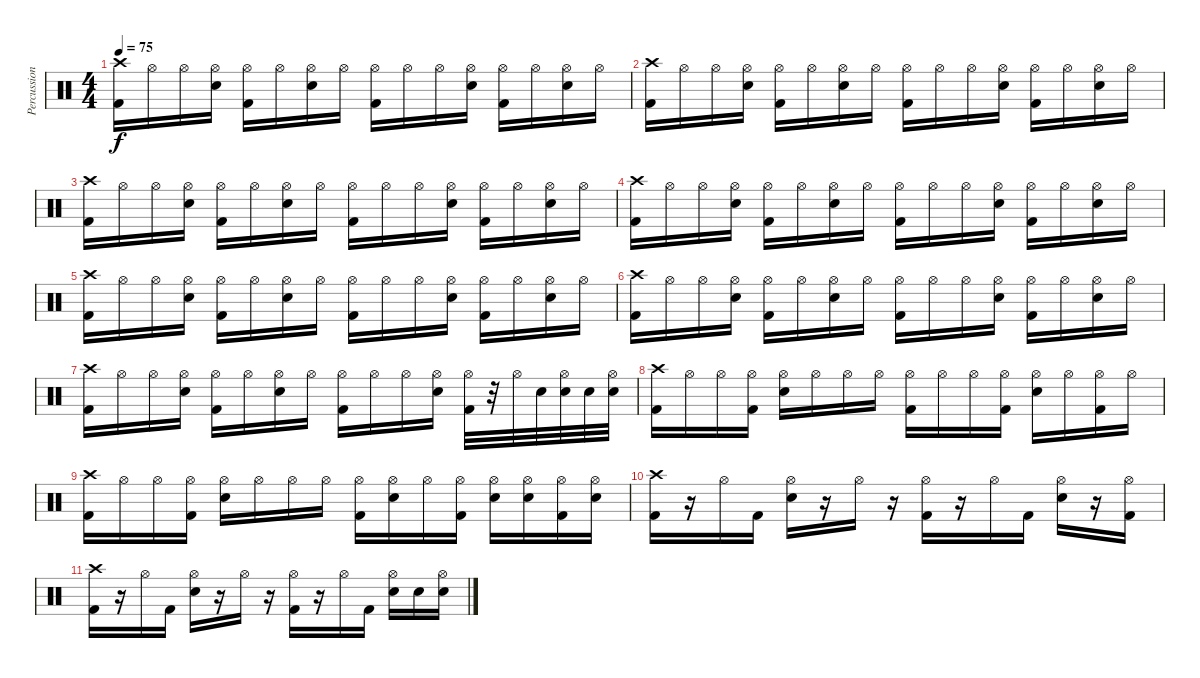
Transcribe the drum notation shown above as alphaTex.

\track ("Percussion" "Percussion") {instrument percussion}
\staff {score}
\articulation defaults
\ts (4 4)
\tempo 75
\clef neutral
\ks c
("Crash high (hit)" "Kick (hit) 2").16{dy f} "Hi-Hat (open)".16 "Hi-Hat (open)".16 ("Hi-Hat (open)" "Snare (hit) 2").16 ("Hi-Hat (open)" "Kick (hit) 2").16 "Hi-Hat (open)".16 ("Hi-Hat (open)" "Snare (hit) 2").16 "Hi-Hat (open)".16 ("Hi-Hat (open)" "Kick (hit) 2").16 "Hi-Hat (open)".16 "Hi-Hat (open)".16 ("Hi-Hat (open)" "Snare (hit) 2").16 ("Hi-Hat (open)" "Kick (hit) 2").16 "Hi-Hat (open)".16 ("Hi-Hat (open)" "Snare (hit) 2").16 "Hi-Hat (open)".16 |
("Crash high (hit)" "Kick (hit) 2").16 "Hi-Hat (open)".16 "Hi-Hat (open)".16 ("Hi-Hat (open)" "Snare (hit) 2").16 ("Hi-Hat (open)" "Kick (hit) 2").16 "Hi-Hat (open)".16 ("Hi-Hat (open)" "Snare (hit) 2").16 "Hi-Hat (open)".16 ("Hi-Hat (open)" "Kick (hit) 2").16 "Hi-Hat (open)".16 "Hi-Hat (open)".16 ("Hi-Hat (open)" "Snare (hit) 2").16 ("Hi-Hat (open)" "Kick (hit) 2").16 "Hi-Hat (open)".16 ("Hi-Hat (open)" "Snare (hit) 2").16 "Hi-Hat (open)".16 |
("Crash high (hit)" "Kick (hit) 2").16 "Hi-Hat (open)".16 "Hi-Hat (open)".16 ("Hi-Hat (open)" "Snare (hit) 2").16 ("Hi-Hat (open)" "Kick (hit) 2").16 "Hi-Hat (open)".16 ("Hi-Hat (open)" "Snare (hit) 2").16 "Hi-Hat (open)".16 ("Hi-Hat (open)" "Kick (hit) 2").16 "Hi-Hat (open)".16 "Hi-Hat (open)".16 ("Hi-Hat (open)" "Snare (hit) 2").16 ("Hi-Hat (open)" "Kick (hit) 2").16 "Hi-Hat (open)".16 ("Hi-Hat (open)" "Snare (hit) 2").16 "Hi-Hat (open)".16 |
("Crash high (hit)" "Kick (hit) 2").16 "Hi-Hat (open)".16 "Hi-Hat (open)".16 ("Hi-Hat (open)" "Snare (hit) 2").16 ("Hi-Hat (open)" "Kick (hit) 2").16 "Hi-Hat (open)".16 ("Hi-Hat (open)" "Snare (hit) 2").16 "Hi-Hat (open)".16 ("Hi-Hat (open)" "Kick (hit) 2").16 "Hi-Hat (open)".16 "Hi-Hat (open)".16 ("Hi-Hat (open)" "Snare (hit) 2").16 ("Hi-Hat (open)" "Kick (hit) 2").16 "Hi-Hat (open)".16 ("Hi-Hat (open)" "Snare (hit) 2").16 "Hi-Hat (open)".16 |
("Crash high (hit)" "Kick (hit) 2").16 "Hi-Hat (open)".16 "Hi-Hat (open)".16 ("Hi-Hat (open)" "Snare (hit) 2").16 ("Hi-Hat (open)" "Kick (hit) 2").16 "Hi-Hat (open)".16 ("Hi-Hat (open)" "Snare (hit) 2").16 "Hi-Hat (open)".16 ("Hi-Hat (open)" "Kick (hit) 2").16 "Hi-Hat (open)".16 "Hi-Hat (open)".16 ("Hi-Hat (open)" "Snare (hit) 2").16 ("Hi-Hat (open)" "Kick (hit) 2").16 "Hi-Hat (open)".16 ("Hi-Hat (open)" "Snare (hit) 2").16 "Hi-Hat (open)".16 |
("Crash high (hit)" "Kick (hit) 2").16 "Hi-Hat (open)".16 "Hi-Hat (open)".16 ("Hi-Hat (open)" "Snare (hit) 2").16 ("Hi-Hat (open)" "Kick (hit) 2").16 "Hi-Hat (open)".16 ("Hi-Hat (open)" "Snare (hit) 2").16 "Hi-Hat (open)".16 ("Hi-Hat (open)" "Kick (hit) 2").16 "Hi-Hat (open)".16 "Hi-Hat (open)".16 ("Hi-Hat (open)" "Snare (hit) 2").16 ("Hi-Hat (open)" "Kick (hit) 2").16 "Hi-Hat (open)".16 ("Hi-Hat (open)" "Snare (hit) 2").16 "Hi-Hat (open)".16 |
("Crash high (hit)" "Kick (hit) 2").16 "Hi-Hat (open)".16 "Hi-Hat (open)".16 ("Hi-Hat (open)" "Snare (hit) 2").16 ("Hi-Hat (open)" "Kick (hit) 2").16 "Hi-Hat (open)".16 ("Hi-Hat (open)" "Snare (hit) 2").16 "Hi-Hat (open)".16 ("Hi-Hat (open)" "Kick (hit) 2").16 "Hi-Hat (open)".16 "Hi-Hat (open)".16 ("Hi-Hat (open)" "Snare (hit) 2").16 ("Hi-Hat (open)" "Kick (hit) 2").32 r.32 "Hi-Hat (open)".32 "Snare (hit) 2".32 ("Hi-Hat (open)" "Snare (hit) 2").32 "Snare (hit) 2".32 ("Hi-Hat (open)" "Snare (hit) 2").32 |
("Crash high (hit)" "Kick (hit) 2").16 "Hi-Hat (open)".16 "Hi-Hat (open)".16 ("Hi-Hat (open)" "Kick (hit) 2").16 ("Hi-Hat (open)" "Snare (hit) 2").16 "Hi-Hat (open)".16 "Hi-Hat (open)".16 "Hi-Hat (open)".16 ("Hi-Hat (open)" "Kick (hit) 2").16 "Hi-Hat (open)".16 "Hi-Hat (open)".16 ("Hi-Hat (open)" "Kick (hit) 2").16 ("Hi-Hat (open)" "Snare (hit) 2").16 "Hi-Hat (open)".16 ("Hi-Hat (open)" "Kick (hit) 2").16 "Hi-Hat (open)".16 |
("Crash high (hit)" "Kick (hit) 2").16 "Hi-Hat (open)".16 "Hi-Hat (open)".16 ("Hi-Hat (open)" "Kick (hit) 2").16 ("Hi-Hat (open)" "Snare (hit) 2").16 "Hi-Hat (open)".16 "Hi-Hat (open)".16 "Hi-Hat (open)".16 ("Hi-Hat (open)" "Kick (hit) 2").16 ("Hi-Hat (open)" "Snare (hit) 2").16 "Hi-Hat (open)".16 ("Hi-Hat (open)" "Kick (hit) 2").16 ("Hi-Hat (open)" "Snare (hit) 2").16 ("Hi-Hat (open)" "Snare (hit) 2").16 ("Hi-Hat (open)" "Kick (hit) 2").16 ("Hi-Hat (open)" "Snare (hit) 2").16 |
("Crash high (hit)" "Kick (hit) 2").16 r.16 "Hi-Hat (open)".16 "Kick (hit) 2".16 ("Hi-Hat (open)" "Snare (hit) 2").16 r.16 "Hi-Hat (open)".16 r.16 ("Hi-Hat (open)" "Kick (hit) 2").16 r.16 "Hi-Hat (open)".16 "Kick (hit) 2".16 ("Hi-Hat (open)" "Snare (hit) 2").16 r.16 ("Hi-Hat (open)" "Kick (hit) 2").16 |
("Crash high (hit)" "Kick (hit) 2").16 r.16 "Hi-Hat (open)".16 "Kick (hit) 2".16 ("Hi-Hat (open)" "Snare (hit) 2").16 r.16 "Hi-Hat (open)".16 r.16 ("Hi-Hat (open)" "Kick (hit) 2").16 r.16 "Hi-Hat (open)".16 "Kick (hit) 2".16 ("Hi-Hat (open)" "Snare (hit) 2").16 "Snare (hit) 2".16 ("Hi-Hat (open)" "Snare (hit) 2").16
